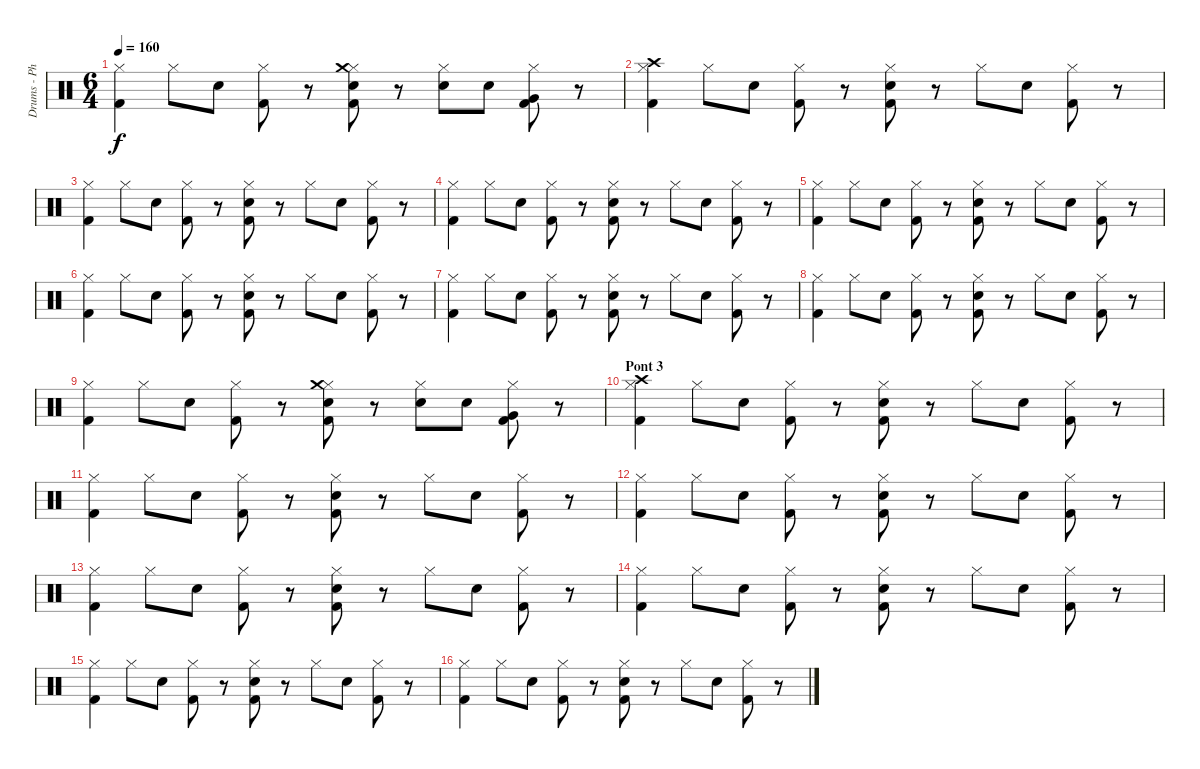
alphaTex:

\track ("Drums - Phil Selway" "Drums - Ph") {instrument percussion}
\staff {score}
\articulation defaults
\ts (6 4)
\tempo 160
\clef neutral
\ks c
("Hi-Hat (closed)" "Kick (hit) 2").4{dy f} "Hi-Hat (closed)".8 "Snare (hit) 2".8 ("Hi-Hat (closed)" "Kick (hit) 2").8 r.8 ("Hi-Hat (closed)" "Crash medium (hit)" "Snare (hit) 2" "Kick (hit) 2").8 r.8 ("Hi-Hat (closed)" "Snare (hit) 2").8 "Snare (hit) 2".8 ("Hi-Hat (closed)" "Very Low Tom (hit)" "Kick (hit) 2").8 r.8 |
("Hi-Hat (closed)" "Crash high (hit)" "Kick (hit) 2").4 "Hi-Hat (closed)".8 "Snare (hit) 2".8 ("Hi-Hat (closed)" "Kick (hit) 2").8 r.8 ("Hi-Hat (closed)" "Snare (hit) 2" "Kick (hit) 2").8 r.8 "Hi-Hat (closed)".8 "Snare (hit) 2".8 ("Hi-Hat (closed)" "Kick (hit) 2").8 r.8 |
("Hi-Hat (closed)" "Kick (hit) 2").4 "Hi-Hat (closed)".8 "Snare (hit) 2".8 ("Hi-Hat (closed)" "Kick (hit) 2").8 r.8 ("Hi-Hat (closed)" "Snare (hit) 2" "Kick (hit) 2").8 r.8 "Hi-Hat (closed)".8 "Snare (hit) 2".8 ("Hi-Hat (closed)" "Kick (hit) 2").8 r.8 |
("Hi-Hat (closed)" "Kick (hit) 2").4 "Hi-Hat (closed)".8 "Snare (hit) 2".8 ("Hi-Hat (closed)" "Kick (hit) 2").8 r.8 ("Hi-Hat (closed)" "Snare (hit) 2" "Kick (hit) 2").8 r.8 "Hi-Hat (closed)".8 "Snare (hit) 2".8 ("Hi-Hat (closed)" "Kick (hit) 2").8 r.8 |
("Hi-Hat (closed)" "Kick (hit) 2").4 "Hi-Hat (closed)".8 "Snare (hit) 2".8 ("Hi-Hat (closed)" "Kick (hit) 2").8 r.8 ("Hi-Hat (closed)" "Snare (hit) 2" "Kick (hit) 2").8 r.8 "Hi-Hat (closed)".8 "Snare (hit) 2".8 ("Hi-Hat (closed)" "Kick (hit) 2").8 r.8 |
("Hi-Hat (closed)" "Kick (hit) 2").4 "Hi-Hat (closed)".8 "Snare (hit) 2".8 ("Hi-Hat (closed)" "Kick (hit) 2").8 r.8 ("Hi-Hat (closed)" "Snare (hit) 2" "Kick (hit) 2").8 r.8 "Hi-Hat (closed)".8 "Snare (hit) 2".8 ("Hi-Hat (closed)" "Kick (hit) 2").8 r.8 |
("Hi-Hat (closed)" "Kick (hit) 2").4 "Hi-Hat (closed)".8 "Snare (hit) 2".8 ("Hi-Hat (closed)" "Kick (hit) 2").8 r.8 ("Hi-Hat (closed)" "Snare (hit) 2" "Kick (hit) 2").8 r.8 "Hi-Hat (closed)".8 "Snare (hit) 2".8 ("Hi-Hat (closed)" "Kick (hit) 2").8 r.8 |
("Hi-Hat (closed)" "Kick (hit) 2").4 "Hi-Hat (closed)".8 "Snare (hit) 2".8 ("Hi-Hat (closed)" "Kick (hit) 2").8 r.8 ("Hi-Hat (closed)" "Snare (hit) 2" "Kick (hit) 2").8 r.8 "Hi-Hat (closed)".8 "Snare (hit) 2".8 ("Hi-Hat (closed)" "Kick (hit) 2").8 r.8 |
("Hi-Hat (closed)" "Kick (hit) 2").4 "Hi-Hat (closed)".8 "Snare (hit) 2".8 ("Hi-Hat (closed)" "Kick (hit) 2").8 r.8 ("Hi-Hat (closed)" "Crash medium (hit)" "Snare (hit) 2" "Kick (hit) 2").8 r.8 ("Hi-Hat (closed)" "Snare (hit) 2").8 "Snare (hit) 2".8 ("Hi-Hat (closed)" "Very Low Tom (hit)" "Kick (hit) 2").8 r.8 |
\section ("" "Pont 3")
("Hi-Hat (closed)" "Crash high (hit)" "Kick (hit) 2").4 "Hi-Hat (closed)".8 "Snare (hit) 2".8 ("Hi-Hat (closed)" "Kick (hit) 2").8 r.8 ("Hi-Hat (closed)" "Snare (hit) 2" "Kick (hit) 2").8 r.8 "Hi-Hat (closed)".8 "Snare (hit) 2".8 ("Hi-Hat (closed)" "Kick (hit) 2").8 r.8 |
("Hi-Hat (closed)" "Kick (hit) 2").4 "Hi-Hat (closed)".8 "Snare (hit) 2".8 ("Hi-Hat (closed)" "Kick (hit) 2").8 r.8 ("Hi-Hat (closed)" "Snare (hit) 2" "Kick (hit) 2").8 r.8 "Hi-Hat (closed)".8 "Snare (hit) 2".8 ("Hi-Hat (closed)" "Kick (hit) 2").8 r.8 |
("Hi-Hat (closed)" "Kick (hit) 2").4 "Hi-Hat (closed)".8 "Snare (hit) 2".8 ("Hi-Hat (closed)" "Kick (hit) 2").8 r.8 ("Hi-Hat (closed)" "Snare (hit) 2" "Kick (hit) 2").8 r.8 "Hi-Hat (closed)".8 "Snare (hit) 2".8 ("Hi-Hat (closed)" "Kick (hit) 2").8 r.8 |
("Hi-Hat (closed)" "Kick (hit) 2").4 "Hi-Hat (closed)".8 "Snare (hit) 2".8 ("Hi-Hat (closed)" "Kick (hit) 2").8 r.8 ("Hi-Hat (closed)" "Snare (hit) 2" "Kick (hit) 2").8 r.8 "Hi-Hat (closed)".8 "Snare (hit) 2".8 ("Hi-Hat (closed)" "Kick (hit) 2").8 r.8 |
("Hi-Hat (closed)" "Kick (hit) 2").4 "Hi-Hat (closed)".8 "Snare (hit) 2".8 ("Hi-Hat (closed)" "Kick (hit) 2").8 r.8 ("Hi-Hat (closed)" "Snare (hit) 2" "Kick (hit) 2").8 r.8 "Hi-Hat (closed)".8 "Snare (hit) 2".8 ("Hi-Hat (closed)" "Kick (hit) 2").8 r.8 |
("Hi-Hat (closed)" "Kick (hit) 2").4 "Hi-Hat (closed)".8 "Snare (hit) 2".8 ("Hi-Hat (closed)" "Kick (hit) 2").8 r.8 ("Hi-Hat (closed)" "Snare (hit) 2" "Kick (hit) 2").8 r.8 "Hi-Hat (closed)".8 "Snare (hit) 2".8 ("Hi-Hat (closed)" "Kick (hit) 2").8 r.8 |
("Hi-Hat (closed)" "Kick (hit) 2").4 "Hi-Hat (closed)".8 "Snare (hit) 2".8 ("Hi-Hat (closed)" "Kick (hit) 2").8 r.8 ("Hi-Hat (closed)" "Snare (hit) 2" "Kick (hit) 2").8 r.8 "Hi-Hat (closed)".8 "Snare (hit) 2".8 ("Hi-Hat (closed)" "Kick (hit) 2").8 r.8
